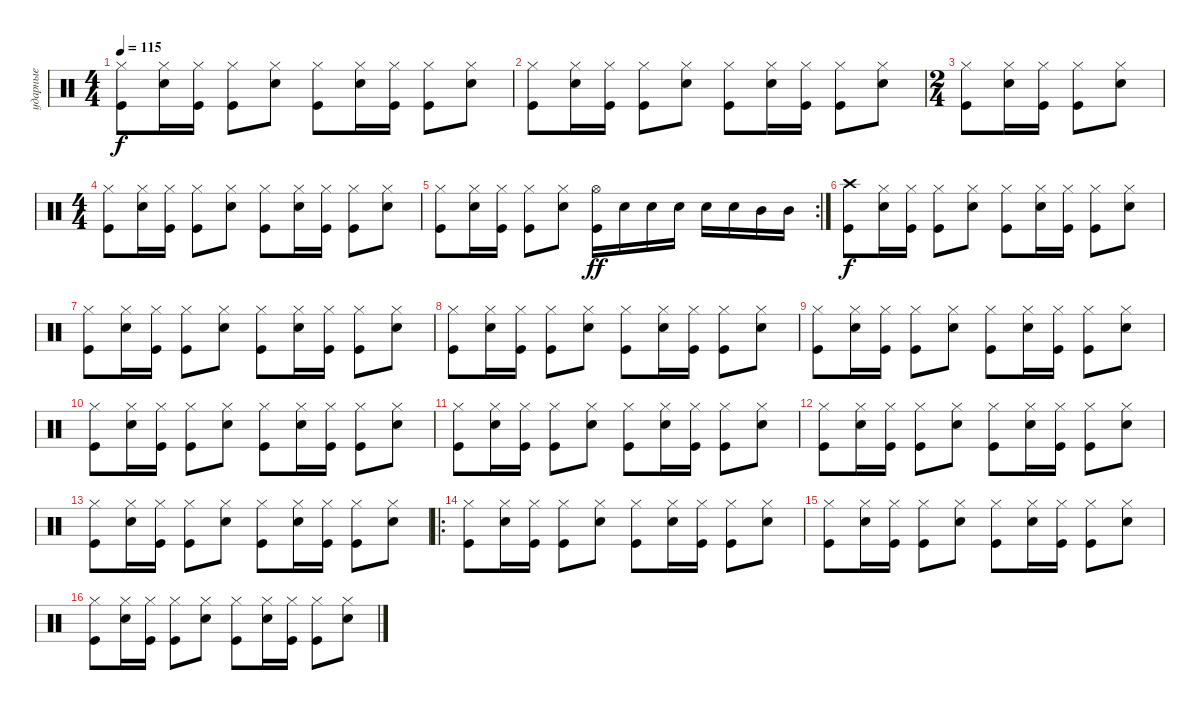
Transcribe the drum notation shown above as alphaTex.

\track ("ударные" "ударные") {instrument percussion}
\staff {score}
\articulation defaults
\ts (4 4)
\tempo 115
\clef neutral
\ks aminor
("Kick (hit)" "Hi-Hat (closed)").8{dy f} ("Snare (hit) 2" "Hi-Hat (closed)").16 ("Kick (hit)" "Hi-Hat (closed)").16 ("Kick (hit)" "Hi-Hat (closed)").8 ("Snare (hit) 2" "Hi-Hat (closed)").8 ("Kick (hit)" "Hi-Hat (closed)").8 ("Snare (hit) 2" "Hi-Hat (closed)").16 ("Kick (hit)" "Hi-Hat (closed)").16 ("Kick (hit)" "Hi-Hat (closed)").8 ("Snare (hit) 2" "Hi-Hat (closed)").8 |
("Kick (hit)" "Hi-Hat (closed)").8 ("Snare (hit) 2" "Hi-Hat (closed)").16 ("Kick (hit)" "Hi-Hat (closed)").16 ("Kick (hit)" "Hi-Hat (closed)").8 ("Snare (hit) 2" "Hi-Hat (closed)").8 ("Kick (hit)" "Hi-Hat (closed)").8 ("Snare (hit) 2" "Hi-Hat (closed)").16 ("Kick (hit)" "Hi-Hat (closed)").16 ("Kick (hit)" "Hi-Hat (closed)").8 ("Snare (hit) 2" "Hi-Hat (closed)").8 |
\ts (2 4)
("Kick (hit)" "Hi-Hat (closed)").8 ("Snare (hit) 2" "Hi-Hat (closed)").16 ("Kick (hit)" "Hi-Hat (closed)").16 ("Kick (hit)" "Hi-Hat (closed)").8 ("Snare (hit) 2" "Hi-Hat (closed)").8 |
\ts (4 4)
("Kick (hit)" "Hi-Hat (closed)").8 ("Snare (hit) 2" "Hi-Hat (closed)").16 ("Kick (hit)" "Hi-Hat (closed)").16 ("Kick (hit)" "Hi-Hat (closed)").8 ("Snare (hit) 2" "Hi-Hat (closed)").8 ("Kick (hit)" "Hi-Hat (closed)").8 ("Snare (hit) 2" "Hi-Hat (closed)").16 ("Kick (hit)" "Hi-Hat (closed)").16 ("Kick (hit)" "Hi-Hat (closed)").8 ("Snare (hit) 2" "Hi-Hat (closed)").8 |
\rc 2
("Kick (hit)" "Hi-Hat (closed)").8 ("Snare (hit) 2" "Hi-Hat (closed)").16 ("Kick (hit)" "Hi-Hat (closed)").16 ("Kick (hit)" "Hi-Hat (closed)").8 ("Snare (hit) 2" "Hi-Hat (closed)").8 ("Kick (hit)" "Hi-Hat (open)").16{dy ff} "Snare (hit) 2".16 "Snare (hit) 2".16 "Snare (hit) 2".16 "Snare (hit) 2".16 "Snare (hit) 2".16 "Mid Tom (hit)".16 "Mid Tom (hit)".16 |
("Kick (hit)" "Crash high (hit)").8{dy f} ("Snare (hit) 2" "Hi-Hat (closed)").16 ("Kick (hit)" "Hi-Hat (closed)").16 ("Kick (hit)" "Hi-Hat (closed)").8 ("Snare (hit) 2" "Hi-Hat (closed)").8 ("Kick (hit)" "Hi-Hat (closed)").8 ("Snare (hit) 2" "Hi-Hat (closed)").16 ("Kick (hit)" "Hi-Hat (closed)").16 ("Kick (hit)" "Hi-Hat (closed)").8 ("Snare (hit) 2" "Hi-Hat (closed)").8 |
("Kick (hit)" "Hi-Hat (closed)").8 ("Snare (hit) 2" "Hi-Hat (closed)").16 ("Kick (hit)" "Hi-Hat (closed)").16 ("Kick (hit)" "Hi-Hat (closed)").8 ("Snare (hit) 2" "Hi-Hat (closed)").8 ("Kick (hit)" "Hi-Hat (closed)").8 ("Snare (hit) 2" "Hi-Hat (closed)").16 ("Kick (hit)" "Hi-Hat (closed)").16 ("Kick (hit)" "Hi-Hat (closed)").8 ("Snare (hit) 2" "Hi-Hat (closed)").8 |
("Kick (hit)" "Hi-Hat (closed)").8 ("Snare (hit) 2" "Hi-Hat (closed)").16 ("Kick (hit)" "Hi-Hat (closed)").16 ("Kick (hit)" "Hi-Hat (closed)").8 ("Snare (hit) 2" "Hi-Hat (closed)").8 ("Kick (hit)" "Hi-Hat (closed)").8 ("Snare (hit) 2" "Hi-Hat (closed)").16 ("Kick (hit)" "Hi-Hat (closed)").16 ("Kick (hit)" "Hi-Hat (closed)").8 ("Snare (hit) 2" "Hi-Hat (closed)").8 |
("Kick (hit)" "Hi-Hat (closed)").8 ("Snare (hit) 2" "Hi-Hat (closed)").16 ("Kick (hit)" "Hi-Hat (closed)").16 ("Kick (hit)" "Hi-Hat (closed)").8 ("Snare (hit) 2" "Hi-Hat (closed)").8 ("Kick (hit)" "Hi-Hat (closed)").8 ("Snare (hit) 2" "Hi-Hat (closed)").16 ("Kick (hit)" "Hi-Hat (closed)").16 ("Kick (hit)" "Hi-Hat (closed)").8 ("Snare (hit) 2" "Hi-Hat (closed)").8 |
("Kick (hit)" "Hi-Hat (closed)").8 ("Snare (hit) 2" "Hi-Hat (closed)").16 ("Kick (hit)" "Hi-Hat (closed)").16 ("Kick (hit)" "Hi-Hat (closed)").8 ("Snare (hit) 2" "Hi-Hat (closed)").8 ("Kick (hit)" "Hi-Hat (closed)").8 ("Snare (hit) 2" "Hi-Hat (closed)").16 ("Kick (hit)" "Hi-Hat (closed)").16 ("Kick (hit)" "Hi-Hat (closed)").8 ("Snare (hit) 2" "Hi-Hat (closed)").8 |
("Kick (hit)" "Hi-Hat (closed)").8 ("Snare (hit) 2" "Hi-Hat (closed)").16 ("Kick (hit)" "Hi-Hat (closed)").16 ("Kick (hit)" "Hi-Hat (closed)").8 ("Snare (hit) 2" "Hi-Hat (closed)").8 ("Kick (hit)" "Hi-Hat (closed)").8 ("Snare (hit) 2" "Hi-Hat (closed)").16 ("Kick (hit)" "Hi-Hat (closed)").16 ("Kick (hit)" "Hi-Hat (closed)").8 ("Snare (hit) 2" "Hi-Hat (closed)").8 |
("Kick (hit)" "Hi-Hat (closed)").8 ("Snare (hit) 2" "Hi-Hat (closed)").16 ("Kick (hit)" "Hi-Hat (closed)").16 ("Kick (hit)" "Hi-Hat (closed)").8 ("Snare (hit) 2" "Hi-Hat (closed)").8 ("Kick (hit)" "Hi-Hat (closed)").8 ("Snare (hit) 2" "Hi-Hat (closed)").16 ("Kick (hit)" "Hi-Hat (closed)").16 ("Kick (hit)" "Hi-Hat (closed)").8 ("Snare (hit) 2" "Hi-Hat (closed)").8 |
("Kick (hit)" "Hi-Hat (closed)").8 ("Snare (hit) 2" "Hi-Hat (closed)").16 ("Kick (hit)" "Hi-Hat (closed)").16 ("Kick (hit)" "Hi-Hat (closed)").8 ("Snare (hit) 2" "Hi-Hat (closed)").8 ("Kick (hit)" "Hi-Hat (closed)").8 ("Snare (hit) 2" "Hi-Hat (closed)").16 ("Kick (hit)" "Hi-Hat (closed)").16 ("Kick (hit)" "Hi-Hat (closed)").8 ("Snare (hit) 2" "Hi-Hat (closed)").8 |
\ro
("Kick (hit)" "Hi-Hat (closed)").8 ("Snare (hit) 2" "Hi-Hat (closed)").16 ("Kick (hit)" "Hi-Hat (closed)").16 ("Kick (hit)" "Hi-Hat (closed)").8 ("Snare (hit) 2" "Hi-Hat (closed)").8 ("Kick (hit)" "Hi-Hat (closed)").8 ("Snare (hit) 2" "Hi-Hat (closed)").16 ("Kick (hit)" "Hi-Hat (closed)").16 ("Kick (hit)" "Hi-Hat (closed)").8 ("Snare (hit) 2" "Hi-Hat (closed)").8 |
("Kick (hit)" "Hi-Hat (closed)").8 ("Snare (hit) 2" "Hi-Hat (closed)").16 ("Kick (hit)" "Hi-Hat (closed)").16 ("Kick (hit)" "Hi-Hat (closed)").8 ("Snare (hit) 2" "Hi-Hat (closed)").8 ("Kick (hit)" "Hi-Hat (closed)").8 ("Snare (hit) 2" "Hi-Hat (closed)").16 ("Kick (hit)" "Hi-Hat (closed)").16 ("Kick (hit)" "Hi-Hat (closed)").8 ("Snare (hit) 2" "Hi-Hat (closed)").8 |
("Kick (hit)" "Hi-Hat (closed)").8 ("Snare (hit) 2" "Hi-Hat (closed)").16 ("Kick (hit)" "Hi-Hat (closed)").16 ("Kick (hit)" "Hi-Hat (closed)").8 ("Snare (hit) 2" "Hi-Hat (closed)").8 ("Kick (hit)" "Hi-Hat (closed)").8 ("Snare (hit) 2" "Hi-Hat (closed)").16 ("Kick (hit)" "Hi-Hat (closed)").16 ("Kick (hit)" "Hi-Hat (closed)").8 ("Snare (hit) 2" "Hi-Hat (closed)").8
